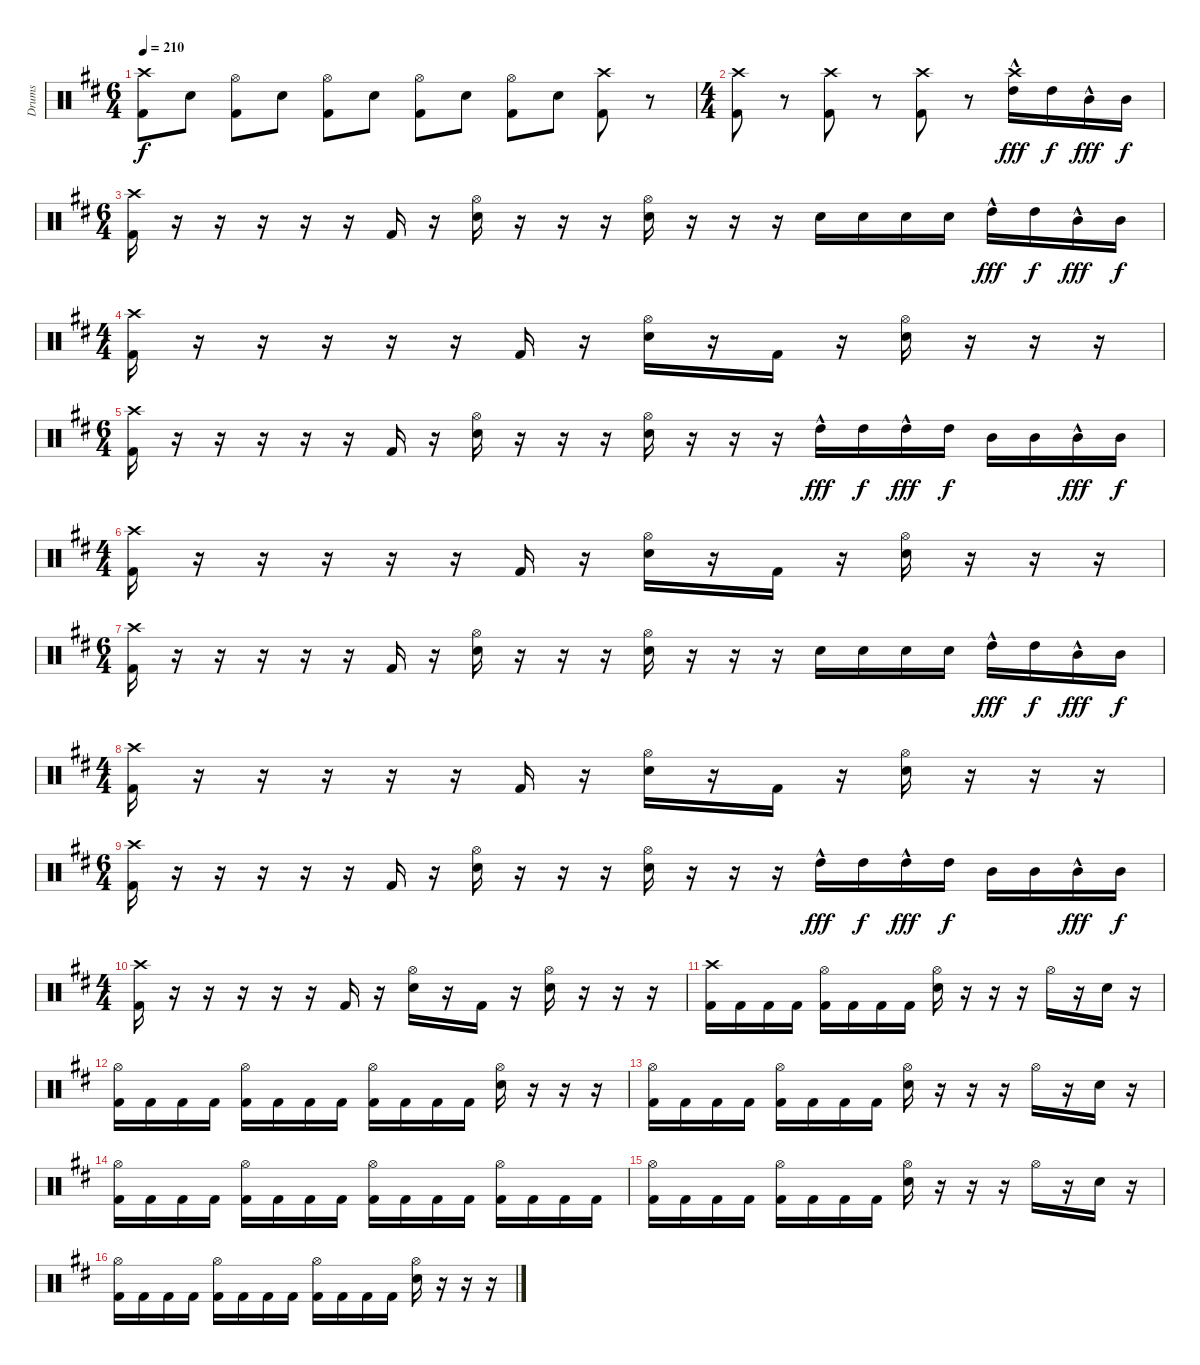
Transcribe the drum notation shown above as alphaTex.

\track ("Drums" "Drums") {instrument percussion}
\staff {score}
\articulation defaults
\ts (6 4)
\tempo 210
\clef neutral
\ks bminor
("Kick (hit) 2" "Crash high (hit)").8{dy f} "Electric Snare (hit)".8 ("Kick (hit) 2" "Hi-Hat (open)").8 "Electric Snare (hit)".8 ("Kick (hit) 2" "Hi-Hat (open)").8 "Electric Snare (hit)".8 ("Kick (hit) 2" "Hi-Hat (open)").8 "Electric Snare (hit)".8 ("Kick (hit) 2" "Hi-Hat (open)").8 "Electric Snare (hit)".8 ("Kick (hit) 2" "Crash high (hit)").8 r.8 |
\ts (4 4)
("Kick (hit) 2" "Crash high (hit)").8 r.8 ("Kick (hit) 2" "Crash high (hit)").8 r.8 ("Kick (hit) 2" "Crash high (hit)").8 r.8 ("Crash high (hit)" "High Tom (hit)"{hac}).16{dy fff} "High Tom (hit)".16{dy f} "Mid Tom (hit)"{hac}.16{dy fff} "Mid Tom (hit)".16{dy f} |
\ts (6 4)
("Kick (hit) 2" "Crash high (hit)").16 r.16 r.16 r.16 r.16 r.16 "Kick (hit) 2".16 r.16 ("Electric Snare (hit)" "Hi-Hat (open)").16 r.16 r.16 r.16 ("Electric Snare (hit)" "Hi-Hat (open)").16 r.16 r.16 r.16 "Electric Snare (hit)".16 "Electric Snare (hit)".16 "Electric Snare (hit)".16 "Electric Snare (hit)".16 "High Tom (hit)"{hac}.16{dy fff} "High Tom (hit)".16{dy f} "Mid Tom (hit)"{hac}.16{dy fff} "Mid Tom (hit)".16{dy f} |
\ts (4 4)
("Kick (hit) 2" "Crash high (hit)").16 r.16 r.16 r.16 r.16 r.16 "Kick (hit) 2".16 r.16 ("Electric Snare (hit)" "Hi-Hat (open)").16 r.16 "Kick (hit) 2".16 r.16 ("Electric Snare (hit)" "Hi-Hat (open)").16 r.16 r.16 r.16 |
\ts (6 4)
("Kick (hit) 2" "Crash high (hit)").16 r.16 r.16 r.16 r.16 r.16 "Kick (hit) 2".16 r.16 ("Electric Snare (hit)" "Hi-Hat (open)").16 r.16 r.16 r.16 ("Electric Snare (hit)" "Hi-Hat (open)").16 r.16 r.16 r.16 "High Tom (hit)"{hac}.16{dy fff} "High Tom (hit)".16{dy f} "High Tom (hit)"{hac}.16{dy fff} "High Tom (hit)".16{dy f} "Mid Tom (hit)".16 "Mid Tom (hit)".16 "Mid Tom (hit)"{hac}.16{dy fff} "Mid Tom (hit)".16{dy f} |
\ts (4 4)
("Kick (hit) 2" "Crash high (hit)").16 r.16 r.16 r.16 r.16 r.16 "Kick (hit) 2".16 r.16 ("Electric Snare (hit)" "Hi-Hat (open)").16 r.16 "Kick (hit) 2".16 r.16 ("Electric Snare (hit)" "Hi-Hat (open)").16 r.16 r.16 r.16 |
\ts (6 4)
("Kick (hit) 2" "Crash high (hit)").16 r.16 r.16 r.16 r.16 r.16 "Kick (hit) 2".16 r.16 ("Electric Snare (hit)" "Hi-Hat (open)").16 r.16 r.16 r.16 ("Electric Snare (hit)" "Hi-Hat (open)").16 r.16 r.16 r.16 "Electric Snare (hit)".16 "Electric Snare (hit)".16 "Electric Snare (hit)".16 "Electric Snare (hit)".16 "High Tom (hit)"{hac}.16{dy fff} "High Tom (hit)".16{dy f} "Mid Tom (hit)"{hac}.16{dy fff} "Mid Tom (hit)".16{dy f} |
\ts (4 4)
("Kick (hit) 2" "Crash high (hit)").16 r.16 r.16 r.16 r.16 r.16 "Kick (hit) 2".16 r.16 ("Electric Snare (hit)" "Hi-Hat (open)").16 r.16 "Kick (hit) 2".16 r.16 ("Electric Snare (hit)" "Hi-Hat (open)").16 r.16 r.16 r.16 |
\ts (6 4)
("Kick (hit) 2" "Crash high (hit)").16 r.16 r.16 r.16 r.16 r.16 "Kick (hit) 2".16 r.16 ("Electric Snare (hit)" "Hi-Hat (open)").16 r.16 r.16 r.16 ("Electric Snare (hit)" "Hi-Hat (open)").16 r.16 r.16 r.16 "High Tom (hit)"{hac}.16{dy fff} "High Tom (hit)".16{dy f} "High Tom (hit)"{hac}.16{dy fff} "High Tom (hit)".16{dy f} "Mid Tom (hit)".16 "Mid Tom (hit)".16 "Mid Tom (hit)"{hac}.16{dy fff} "Mid Tom (hit)".16{dy f} |
\ts (4 4)
("Kick (hit) 2" "Crash high (hit)").16 r.16 r.16 r.16 r.16 r.16 "Kick (hit) 2".16 r.16 ("Electric Snare (hit)" "Hi-Hat (open)").16 r.16 "Kick (hit) 2".16 r.16 ("Electric Snare (hit)" "Hi-Hat (open)").16 r.16 r.16 r.16 |
("Kick (hit) 2" "Crash high (hit)").16 "Kick (hit) 2".16 "Kick (hit) 2".16 "Kick (hit) 2".16 ("Kick (hit) 2" "Hi-Hat (open)").16 "Kick (hit) 2".16 "Kick (hit) 2".16 "Kick (hit) 2".16 ("Electric Snare (hit)" "Hi-Hat (open)").16 r.16 r.16 r.16 "Hi-Hat (open)".16 r.16 "Electric Snare (hit)".16 r.16 |
("Kick (hit) 2" "Hi-Hat (open)").16 "Kick (hit) 2".16 "Kick (hit) 2".16 "Kick (hit) 2".16 ("Kick (hit) 2" "Hi-Hat (open)").16 "Kick (hit) 2".16 "Kick (hit) 2".16 "Kick (hit) 2".16 ("Kick (hit) 2" "Hi-Hat (open)").16 "Kick (hit) 2".16 "Kick (hit) 2".16 "Kick (hit) 2".16 ("Electric Snare (hit)" "Hi-Hat (open)").16 r.16 r.16 r.16 |
("Kick (hit) 2" "Hi-Hat (open)").16 "Kick (hit) 2".16 "Kick (hit) 2".16 "Kick (hit) 2".16 ("Kick (hit) 2" "Hi-Hat (open)").16 "Kick (hit) 2".16 "Kick (hit) 2".16 "Kick (hit) 2".16 ("Electric Snare (hit)" "Hi-Hat (open)").16 r.16 r.16 r.16 "Hi-Hat (open)".16 r.16 "Electric Snare (hit)".16 r.16 |
("Kick (hit) 2" "Hi-Hat (open)").16 "Kick (hit) 2".16 "Kick (hit) 2".16 "Kick (hit) 2".16 ("Kick (hit) 2" "Hi-Hat (open)").16 "Kick (hit) 2".16 "Kick (hit) 2".16 "Kick (hit) 2".16 ("Kick (hit) 2" "Hi-Hat (open)").16 "Kick (hit) 2".16 "Kick (hit) 2".16 "Kick (hit) 2".16 ("Kick (hit) 2" "Hi-Hat (open)").16 "Kick (hit) 2".16 "Kick (hit) 2".16 "Kick (hit) 2".16 |
("Kick (hit) 2" "Hi-Hat (open)").16 "Kick (hit) 2".16 "Kick (hit) 2".16 "Kick (hit) 2".16 ("Kick (hit) 2" "Hi-Hat (open)").16 "Kick (hit) 2".16 "Kick (hit) 2".16 "Kick (hit) 2".16 ("Electric Snare (hit)" "Hi-Hat (open)").16 r.16 r.16 r.16 "Hi-Hat (open)".16 r.16 "Electric Snare (hit)".16 r.16 |
("Kick (hit) 2" "Hi-Hat (open)").16 "Kick (hit) 2".16 "Kick (hit) 2".16 "Kick (hit) 2".16 ("Kick (hit) 2" "Hi-Hat (open)").16 "Kick (hit) 2".16 "Kick (hit) 2".16 "Kick (hit) 2".16 ("Kick (hit) 2" "Hi-Hat (open)").16 "Kick (hit) 2".16 "Kick (hit) 2".16 "Kick (hit) 2".16 ("Electric Snare (hit)" "Hi-Hat (open)").16 r.16 r.16 r.16
